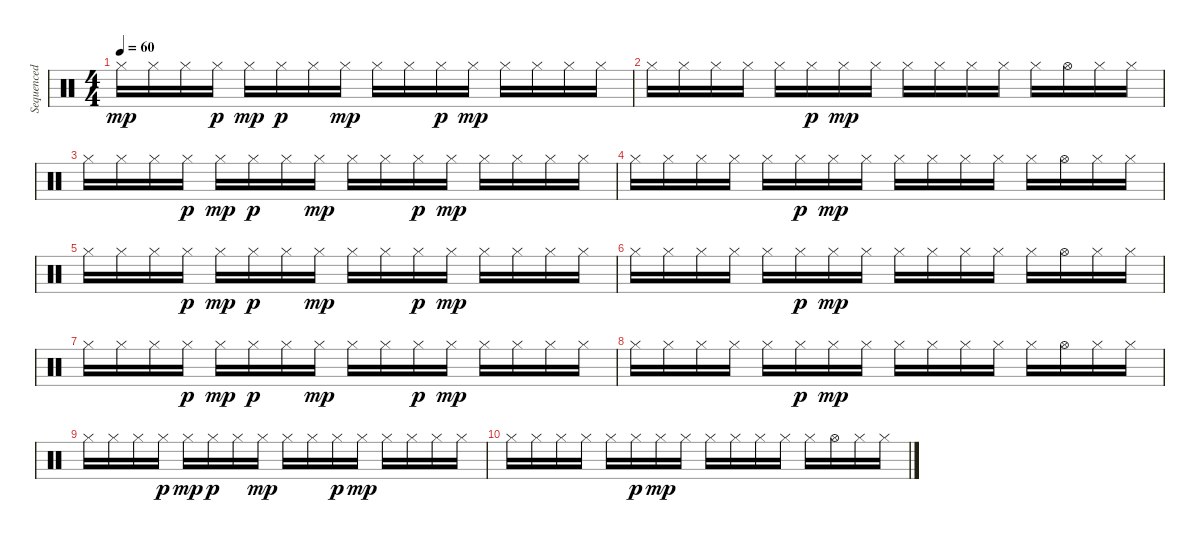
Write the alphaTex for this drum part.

\track ("Sequenced by Ade" "Sequenced ") {instrument percussion}
\staff {score}
\articulation defaults
\ts (4 4)
\tempo 60
\clef neutral
\ks c "Hi-Hat (closed)".16{dy mp} "Hi-Hat (closed)".16 "Hi-Hat (closed)".16 "Hi-Hat (closed)".16{dy p} "Hi-Hat (closed)".16{dy mp} "Hi-Hat (closed)".16{dy p} "Hi-Hat (closed)".16 "Hi-Hat (closed)".16{dy mp} "Hi-Hat (closed)".16 "Hi-Hat (closed)".16 "Hi-Hat (closed)".16{dy p} "Hi-Hat (closed)".16{dy mp} "Hi-Hat (closed)".16 "Hi-Hat (closed)".16 "Hi-Hat (closed)".16 "Hi-Hat (closed)".16
|
"Hi-Hat (closed)".16 "Hi-Hat (closed)".16 "Hi-Hat (closed)".16 "Hi-Hat (closed)".16 "Hi-Hat (closed)".16 "Hi-Hat (closed)".16{dy p} "Hi-Hat (closed)".16{dy mp} "Hi-Hat (closed)".16 "Hi-Hat (closed)".16 "Hi-Hat (closed)".16 "Hi-Hat (closed)".16 "Hi-Hat (closed)".16 "Hi-Hat (closed)".16 "Hi-Hat (open)".16 "Hi-Hat (closed)".16 "Hi-Hat (closed)".16 |
"Hi-Hat (closed)".16 "Hi-Hat (closed)".16 "Hi-Hat (closed)".16 "Hi-Hat (closed)".16{dy p} "Hi-Hat (closed)".16{dy mp} "Hi-Hat (closed)".16{dy p} "Hi-Hat (closed)".16 "Hi-Hat (closed)".16{dy mp} "Hi-Hat (closed)".16 "Hi-Hat (closed)".16 "Hi-Hat (closed)".16{dy p} "Hi-Hat (closed)".16{dy mp} "Hi-Hat (closed)".16 "Hi-Hat (closed)".16 "Hi-Hat (closed)".16 "Hi-Hat (closed)".16 |
"Hi-Hat (closed)".16 "Hi-Hat (closed)".16 "Hi-Hat (closed)".16 "Hi-Hat (closed)".16 "Hi-Hat (closed)".16 "Hi-Hat (closed)".16{dy p} "Hi-Hat (closed)".16{dy mp} "Hi-Hat (closed)".16 "Hi-Hat (closed)".16 "Hi-Hat (closed)".16 "Hi-Hat (closed)".16 "Hi-Hat (closed)".16 "Hi-Hat (closed)".16 "Hi-Hat (open)".16 "Hi-Hat (closed)".16 "Hi-Hat (closed)".16 |
"Hi-Hat (closed)".16 "Hi-Hat (closed)".16 "Hi-Hat (closed)".16 "Hi-Hat (closed)".16{dy p} "Hi-Hat (closed)".16{dy mp} "Hi-Hat (closed)".16{dy p} "Hi-Hat (closed)".16 "Hi-Hat (closed)".16{dy mp} "Hi-Hat (closed)".16 "Hi-Hat (closed)".16 "Hi-Hat (closed)".16{dy p} "Hi-Hat (closed)".16{dy mp} "Hi-Hat (closed)".16 "Hi-Hat (closed)".16 "Hi-Hat (closed)".16 "Hi-Hat (closed)".16 |
"Hi-Hat (closed)".16 "Hi-Hat (closed)".16 "Hi-Hat (closed)".16 "Hi-Hat (closed)".16 "Hi-Hat (closed)".16 "Hi-Hat (closed)".16{dy p} "Hi-Hat (closed)".16{dy mp} "Hi-Hat (closed)".16 "Hi-Hat (closed)".16 "Hi-Hat (closed)".16 "Hi-Hat (closed)".16 "Hi-Hat (closed)".16 "Hi-Hat (closed)".16 "Hi-Hat (open)".16 "Hi-Hat (closed)".16 "Hi-Hat (closed)".16 |
"Hi-Hat (closed)".16{volume 16} "Hi-Hat (closed)".16{volume 16} "Hi-Hat (closed)".16{volume 15} "Hi-Hat (closed)".16{dy p volume 15} "Hi-Hat (closed)".16{dy mp volume 15} "Hi-Hat (closed)".16{dy p volume 15} "Hi-Hat (closed)".16{volume 14} "Hi-Hat (closed)".16{dy mp volume 14} "Hi-Hat (closed)".16{volume 14} "Hi-Hat (closed)".16{volume 14} "Hi-Hat (closed)".16{dy p volume 14} "Hi-Hat (closed)".16{dy mp volume 13} "Hi-Hat (closed)".16{volume 13} "Hi-Hat (closed)".16{volume 13} "Hi-Hat (closed)".16{volume 12} "Hi-Hat (closed)".16{volume 12} |
"Hi-Hat (closed)".16{volume 12} "Hi-Hat (closed)".16{volume 12} "Hi-Hat (closed)".16{volume 12} "Hi-Hat (closed)".16{volume 11} "Hi-Hat (closed)".16{volume 11} "Hi-Hat (closed)".16{dy p volume 11} "Hi-Hat (closed)".16{dy mp volume 10} "Hi-Hat (closed)".16{volume 10} "Hi-Hat (closed)".16{volume 10} "Hi-Hat (closed)".16{volume 10} "Hi-Hat (closed)".16{volume 10} "Hi-Hat (closed)".16{volume 9} "Hi-Hat (closed)".16{volume 9} "Hi-Hat (open)".16{volume 9} "Hi-Hat (closed)".16{volume 8} "Hi-Hat (closed)".16{volume 8} |
"Hi-Hat (closed)".16{volume 8} "Hi-Hat (closed)".16{volume 8} "Hi-Hat (closed)".16{volume 8} "Hi-Hat (closed)".16{dy p volume 7} "Hi-Hat (closed)".16{dy mp volume 7} "Hi-Hat (closed)".16{dy p volume 7} "Hi-Hat (closed)".16{volume 6} "Hi-Hat (closed)".16{dy mp volume 6} "Hi-Hat (closed)".16{volume 6} "Hi-Hat (closed)".16{volume 6} "Hi-Hat (closed)".16{dy p volume 6} "Hi-Hat (closed)".16{dy mp volume 5} "Hi-Hat (closed)".16{volume 5} "Hi-Hat (closed)".16{volume 5} "Hi-Hat (closed)".16{volume 4} "Hi-Hat (closed)".16{volume 4} |
"Hi-Hat (closed)".16{volume 4} "Hi-Hat (closed)".16{volume 4} "Hi-Hat (closed)".16{volume 4} "Hi-Hat (closed)".16{volume 3} "Hi-Hat (closed)".16{volume 3} "Hi-Hat (closed)".16{dy p volume 3} "Hi-Hat (closed)".16{dy mp volume 2} "Hi-Hat (closed)".16{volume 2} "Hi-Hat (closed)".16{volume 2} "Hi-Hat (closed)".16{volume 2} "Hi-Hat (closed)".16{volume 2} "Hi-Hat (closed)".16{volume 1} "Hi-Hat (closed)".16{volume 1} "Hi-Hat (open)".16{volume 1} "Hi-Hat (closed)".16{volume 0} "Hi-Hat (closed)".16{volume 0}
